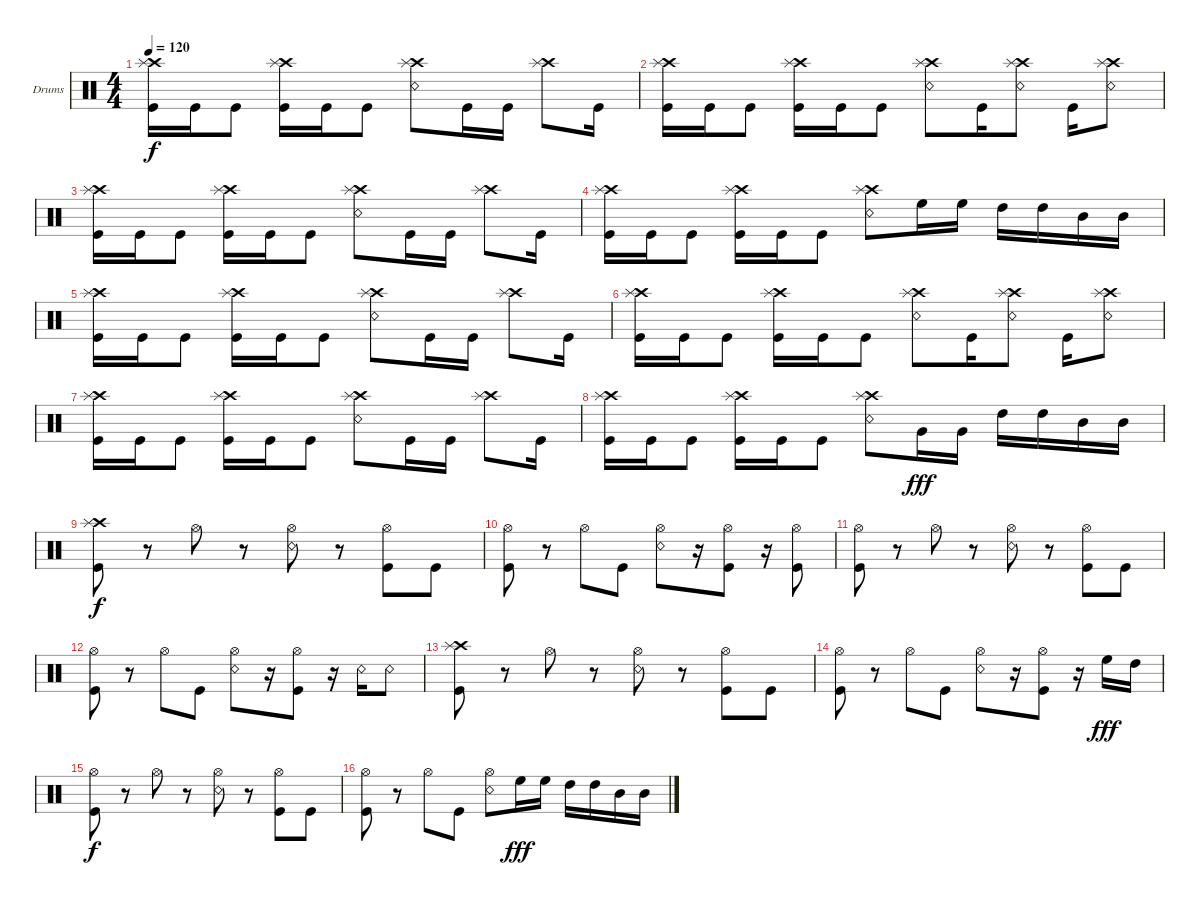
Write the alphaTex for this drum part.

\defaultSystemsLayout 4
\bracketExtendMode groupsimilarinstruments
\firstSystemTrackNameOrientation horizontal
\otherSystemsTrackNameOrientation horizontal
\track ("Drumkit" "Drums") {instrument percussion}
\staff {score}
\articulation defaults
\ts (4 4)
\tempo 120
\clef neutral
\scale
0.472222
\ks c
("Kick (hit)" "Crash high (hit)" "Splash (hit)").16{dy f} "Kick (hit)".16 "Kick (hit)".8 ("Kick (hit)" "Crash high (hit)" "Splash (hit)").16 "Kick (hit)".16 "Kick (hit)".8 ("Snare (rim shot)" "Crash high (hit)" "Splash (hit)").8 "Kick (hit)".16 "Kick (hit)".16 ("Crash high (hit)" "Splash (hit)").8 "Kick (hit)".16 |
\scale
0.263889 ("Kick (hit)" "Crash high (hit)" "Splash (hit)").16 "Kick (hit)".16 "Kick (hit)".8 ("Kick (hit)" "Crash high (hit)" "Splash (hit)").16 "Kick (hit)".16 "Kick (hit)".8 ("Snare (rim shot)" "Crash high (hit)" "Splash (hit)").8 "Kick (hit)".16 ("Snare (rim shot)" "Crash high (hit)" "Splash (hit)").8 "Kick (hit)".16 ("Snare (rim shot)" "Crash high (hit)" "Splash (hit)").8 |
\scale
0.263889 ("Kick (hit)" "Crash high (hit)" "Splash (hit)").16 "Kick (hit)".16 "Kick (hit)".8 ("Kick (hit)" "Crash high (hit)" "Splash (hit)").16 "Kick (hit)".16 "Kick (hit)".8 ("Snare (rim shot)" "Crash high (hit)" "Splash (hit)").8 "Kick (hit)".16 "Kick (hit)".16 ("Crash high (hit)" "Splash (hit)").8 "Kick (hit)".16 |
\scale
0.333333 ("Kick (hit)" "Crash high (hit)" "Splash (hit)").16 "Kick (hit)".16 "Kick (hit)".8 ("Kick (hit)" "Crash high (hit)" "Splash (hit)").16 "Kick (hit)".16 "Kick (hit)".8 ("Snare (rim shot)" "Crash high (hit)" "Splash (hit)").8 "High Floor Tom (hit)".16 "High Floor Tom (hit)".16 "High Tom (hit)".16 "High Tom (hit)".16 "Mid Tom (hit)".16 "Mid Tom (hit)".16 |
\scale
0.333333 ("Kick (hit)" "Crash high (hit)" "Splash (hit)").16 "Kick (hit)".16 "Kick (hit)".8 ("Kick (hit)" "Crash high (hit)" "Splash (hit)").16 "Kick (hit)".16 "Kick (hit)".8 ("Snare (rim shot)" "Crash high (hit)" "Splash (hit)").8 "Kick (hit)".16 "Kick (hit)".16 ("Crash high (hit)" "Splash (hit)").8 "Kick (hit)".16 |
\scale
0.333333 ("Kick (hit)" "Crash high (hit)" "Splash (hit)").16 "Kick (hit)".16 "Kick (hit)".8 ("Kick (hit)" "Crash high (hit)" "Splash (hit)").16 "Kick (hit)".16 "Kick (hit)".8 ("Snare (rim shot)" "Crash high (hit)" "Splash (hit)").8 "Kick (hit)".16 ("Snare (rim shot)" "Crash high (hit)" "Splash (hit)").8 "Kick (hit)".16 ("Snare (rim shot)" "Crash high (hit)" "Splash (hit)").8 |
\scale
0.333333 ("Kick (hit)" "Crash high (hit)" "Splash (hit)").16 "Kick (hit)".16 "Kick (hit)".8 ("Kick (hit)" "Crash high (hit)" "Splash (hit)").16 "Kick (hit)".16 "Kick (hit)".8 ("Snare (rim shot)" "Crash high (hit)" "Splash (hit)").8 "Kick (hit)".16 "Kick (hit)".16 ("Crash high (hit)" "Splash (hit)").8 "Kick (hit)".16 |
\scale
0.333333 ("Kick (hit)" "Crash high (hit)" "Splash (hit)").16 "Kick (hit)".16 "Kick (hit)".8 ("Kick (hit)" "Crash high (hit)" "Splash (hit)").16 "Kick (hit)".16 "Kick (hit)".8 ("Snare (rim shot)" "Crash high (hit)" "Splash (hit)").8 "Very Low Tom (hit)".16{dy fff} "Very Low Tom (hit)".16 "High Tom (hit)".16 "High Tom (hit)".16 "Mid Tom (hit)".16 "Mid Tom (hit)".16 |
\scale
0.333333 ("Kick (hit)" "Crash high (hit)" "Splash (hit)").8{dy f} r.8 "Hi-Hat (open)".8 r.8 ("Hi-Hat (open)" "Snare (rim shot)").8 r.8 ("Kick (hit)" "Hi-Hat (open)").8 "Kick (hit)".8 |
\scale
0.333333 ("Kick (hit)" "Hi-Hat (open)").8 r.8 "Hi-Hat (open)".8 "Kick (hit)".8 ("Hi-Hat (open)" "Snare (rim shot)").8 r.16 ("Hi-Hat (open)" "Kick (hit)").8 r.16 ("Kick (hit)" "Hi-Hat (open)").8 |
\scale
0.333333 ("Kick (hit)" "Hi-Hat (open)").8 r.8 "Hi-Hat (open)".8 r.8 ("Hi-Hat (open)" "Snare (rim shot)").8 r.8 ("Kick (hit)" "Hi-Hat (open)").8 "Kick (hit)".8 |
\scale
0.333333 ("Kick (hit)" "Hi-Hat (open)").8 r.8 "Hi-Hat (open)".8 "Kick (hit)".8 ("Hi-Hat (open)" "Snare (rim shot)").8 r.16 ("Hi-Hat (open)" "Kick (hit)").8 r.16 "Snare (rim shot)".16 "Snare (rim shot)".8 |
\scale
0.333333 ("Kick (hit)" "Crash high (hit)" "Splash (hit)").8 r.8 "Hi-Hat (open)".8 r.8 ("Hi-Hat (open)" "Snare (rim shot)").8 r.8 ("Kick (hit)" "Hi-Hat (open)").8 "Kick (hit)".8 |
\scale
0.333333 ("Kick (hit)" "Hi-Hat (open)").8 r.8 "Hi-Hat (open)".8 "Kick (hit)".8 ("Hi-Hat (open)" "Snare (rim shot)").8 r.16 ("Hi-Hat (open)" "Kick (hit)").8 r.16 "High Floor Tom (hit)".16{dy fff} "High Tom (hit)".16 |
\scale
0.333333 ("Kick (hit)" "Hi-Hat (open)").8{dy f} r.8 "Hi-Hat (open)".8 r.8 ("Hi-Hat (open)" "Snare (rim shot)").8 r.8 ("Kick (hit)" "Hi-Hat (open)").8 "Kick (hit)".8 |
\scale
0.333333 ("Kick (hit)" "Hi-Hat (open)").8 r.8 "Hi-Hat (open)".8 "Kick (hit)".8 ("Hi-Hat (open)" "Snare (rim shot)").8 "High Floor Tom (hit)".16{dy fff} "High Floor Tom (hit)".16 "High Tom (hit)".16 "High Tom (hit)".16 "Mid Tom (hit)".16 "Mid Tom (hit)".16
